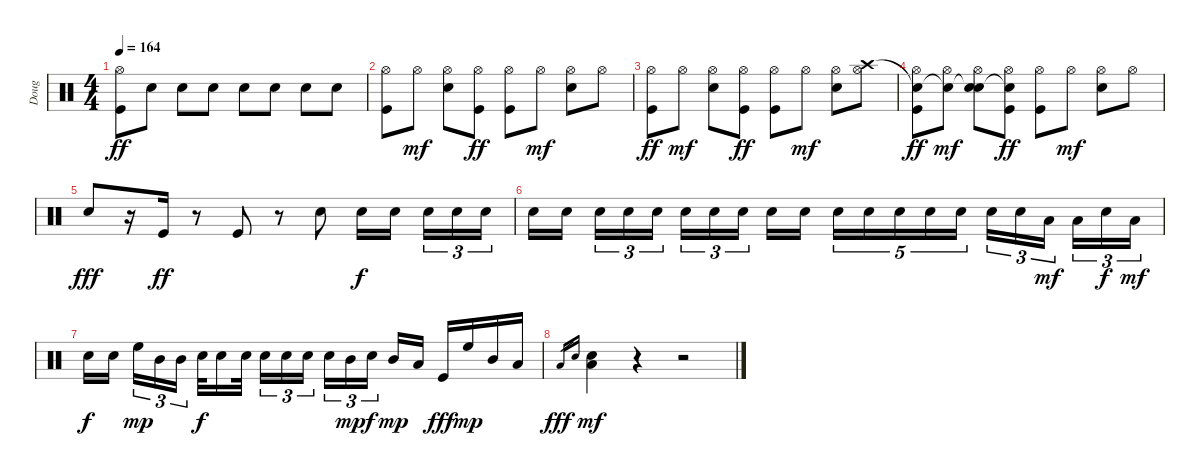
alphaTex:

\track ("Doug" "Doug") {instrument percussion}
\staff {score}
\articulation defaults
\ts (4 4)
\tempo 164
\clef neutral
\ks c
("Hi-Hat (open)" "Kick (hit)").8{dy ff} "Electric Snare (hit)".8 "Electric Snare (hit)".8 "Electric Snare (hit)".8 "Electric Snare (hit)".8 "Electric Snare (hit)".8 "Electric Snare (hit)".8 "Electric Snare (hit)".8 |
("Hi-Hat (open)" "Kick (hit)").8 "Hi-Hat (open)".8{dy mf} ("Hi-Hat (open)" "Electric Snare (hit)").8 ("Hi-Hat (open)" "Kick (hit)").8{dy ff} ("Hi-Hat (open)" "Kick (hit)").8 "Hi-Hat (open)".8{dy mf} ("Hi-Hat (open)" "Electric Snare (hit)").8 "Hi-Hat (open)".8 |
("Hi-Hat (open)" "Kick (hit)").8{dy ff} "Hi-Hat (open)".8{dy mf} ("Hi-Hat (open)" "Electric Snare (hit)").8 ("Hi-Hat (open)" "Kick (hit)").8{dy ff} ("Hi-Hat (open)" "Kick (hit)").8 "Hi-Hat (open)".8{dy mf} ("Hi-Hat (open)" "Electric Snare (hit)").8 ("Crash high (hit)" "Hi-Hat (open)").8 |
("Snare (hit)"{t} "Hi-Hat (open)" "Kick (hit)").8{dy ff} ("Snare (hit)"{t} "Hi-Hat (open)").8{dy mf} ("Snare (hit)"{t} "Hi-Hat (open)" "Electric Snare (hit)").8 ("Snare (hit)"{t} "Hi-Hat (open)" "Kick (hit)").8{dy ff} ("Hi-Hat (open)" "Kick (hit)").8 "Hi-Hat (open)".8{dy mf} ("Hi-Hat (open)" "Electric Snare (hit)").8 "Hi-Hat (open)".8 |
"Electric Snare (hit)".8{dy fff} r.16 "Kick (hit)".16{dy ff} r.8 "Kick (hit)".8 r.8 "Electric Snare (hit)".8 "Electric Snare (hit)".16{dy f} "Electric Snare (hit)".16 "Electric Snare (hit)".16{tu (3 2)} "Electric Snare (hit)".16{tu (3 2)} "Electric Snare (hit)".16{tu (3 2)} |
"Electric Snare (hit)".16 "Electric Snare (hit)".16 "Electric Snare (hit)".16{tu (3 2)} "Electric Snare (hit)".16{tu (3 2)} "Electric Snare (hit)".16{tu (3 2)} "Electric Snare (hit)".16{tu (3 2)} "Electric Snare (hit)".16{tu (3 2)} "Electric Snare (hit)".16{tu (3 2)} "Electric Snare (hit)".16 "Electric Snare (hit)".16 "Electric Snare (hit)".16{tu (5 4)} "Electric Snare (hit)".16{tu (5 4)} "Electric Snare (hit)".16{tu (5 4)} "Electric Snare (hit)".16{tu (5 4)} "Electric Snare (hit)".16{tu (5 4)} "Electric Snare (hit)".16{tu (3 2)} "Electric Snare (hit)".16{tu (3 2)} "Low Tom (hit)".16{tu (3 2) dy mf} "Low Tom (hit)".16{tu (3 2)} "Electric Snare (hit)".16{tu (3 2) dy f} "Low Tom (hit)".16{tu (3 2) dy mf} |
"Electric Snare (hit)".16{dy f} "Electric Snare (hit)".16 "High Floor Tom (hit)".16{tu (3 2) dy mp} "Mid Tom (hit)".16{tu (3 2)} "Mid Tom (hit)".16{tu (3 2)} "Electric Snare (hit)".32{dy f} "Electric Snare (hit)".16 "Electric Snare (hit)".32 "Electric Snare (hit)".16{tu (3 2)} "Electric Snare (hit)".16{tu (3 2)} "Electric Snare (hit)".16{tu (3 2)} "Electric Snare (hit)".16{tu (3 2)} "Mid Tom (hit)".16{tu (3 2) dy mp} "Electric Snare (hit)".16{tu (3 2) dy f} "Mid Tom (hit)".16{dy mp} "Low Tom (hit)".16 "Kick (hit)".16{dy fff} "High Floor Tom (hit)".16{dy mp} "Mid Tom (hit)".16 "Low Tom (hit)".16 |
"Low Tom (hit)".16{gr dy fff} "Electric Snare (hit)".16{gr} ("Low Tom (hit)" "Electric Snare (hit)").4{dy mf} r.4 r.2
